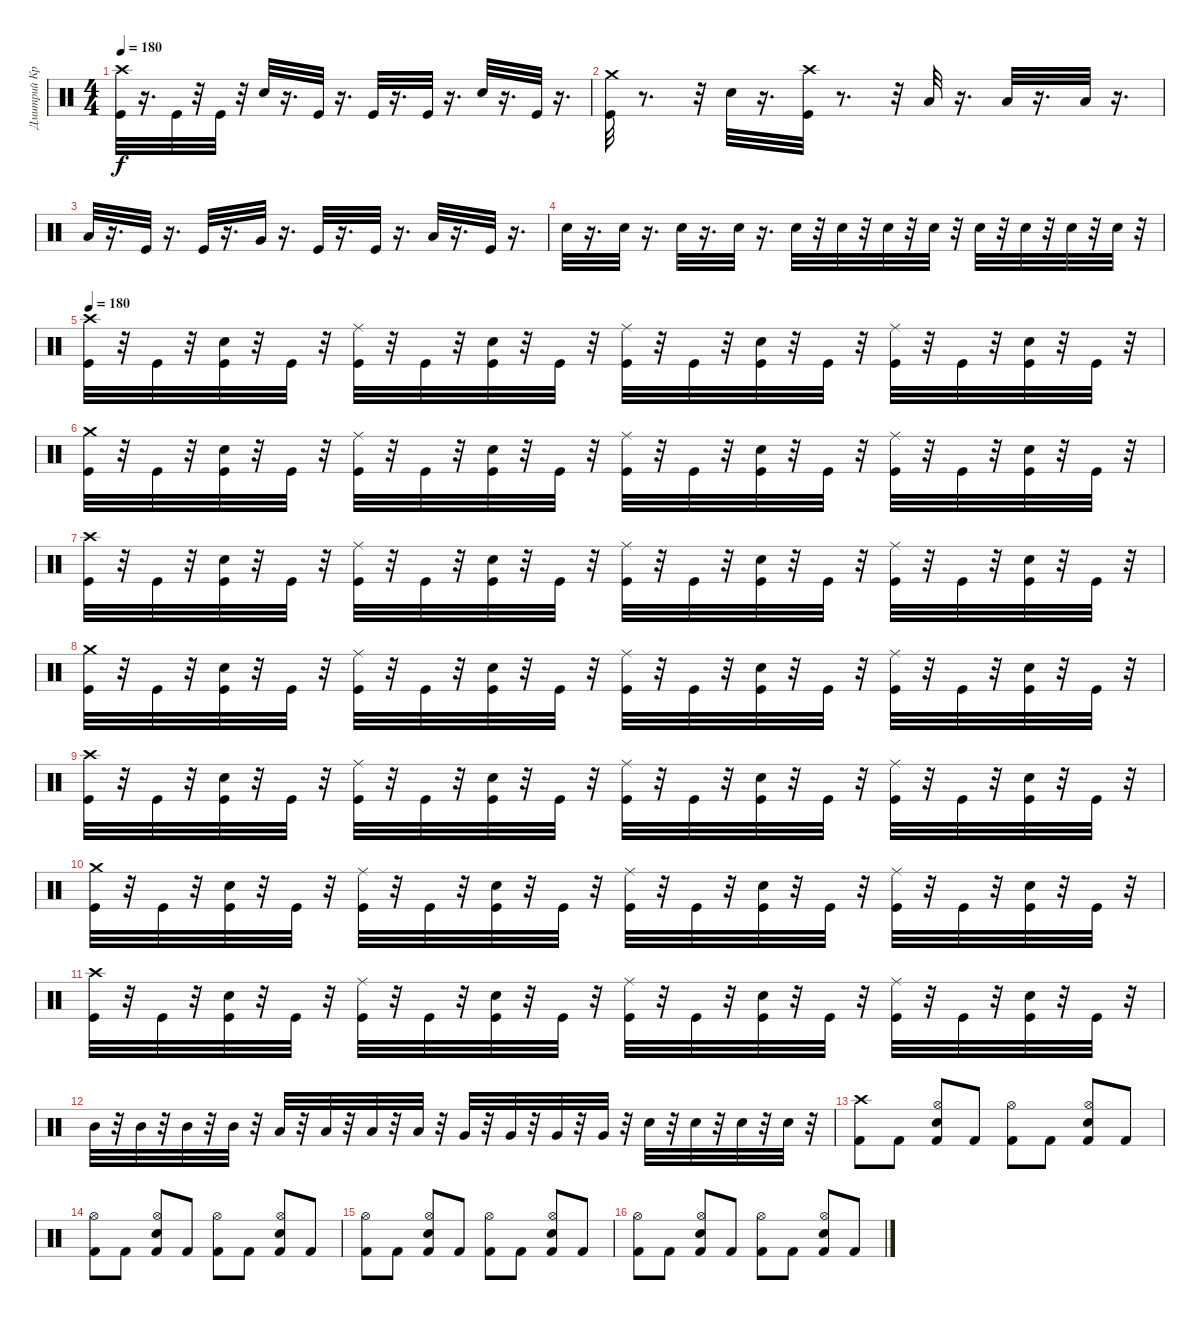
\track ("Дмитрий Кривенков" "Дмитрий Кр") {instrument percussion}
\staff {score}
\articulation defaults
\ts (4 4)
\tempo 180
\clef neutral
\ks c
("Kick (hit)" "Crash high (hit)").32{dy f} r.16{d} "Kick (hit)".32 r.32 "Kick (hit)".32 r.32 "Electric Snare (hit)".32 r.16{d} "Kick (hit)".32 r.16{d} "Kick (hit)".32 r.16{d} "Kick (hit)".32 r.16{d} "Electric Snare (hit)".32 r.16{d} "Kick (hit)".32 r.16{d} |
("Kick (hit)" "Crash medium (hit)").32 r.8{d} r.32 "Electric Snare (hit)".32 r.16{d} ("Kick (hit)" "Crash high (hit)").32 r.8{d} r.32 "Low Floor Tom (hit)".32 r.16{d} "Low Floor Tom (hit)".32 r.16{d} "Low Floor Tom (hit)".32 r.16{d} |
"Low Tom (hit)".32 r.16{d} "Kick (hit)".32 r.16{d} "Kick (hit)".32 r.16{d} "Very Low Tom (hit)".32 r.16{d} "Kick (hit)".32 r.16{d} "Kick (hit)".32 r.16{d} "Low Floor Tom (hit)".32 r.16{d} "Kick (hit)".32 r.16{d} |
"Electric Snare (hit)".32 r.16{d} "Electric Snare (hit)".32 r.16{d} "Electric Snare (hit)".32 r.16{d} "Electric Snare (hit)".32 r.16{d} "Electric Snare (hit)".32 r.32 "Electric Snare (hit)".32 r.32 "Electric Snare (hit)".32 r.32 "Electric Snare (hit)".32 r.32 "Electric Snare (hit)".32 r.32 "Electric Snare (hit)".32 r.32 "Electric Snare (hit)".32 r.32 "Electric Snare (hit)".32 r.32 |
\tempo 180
("Kick (hit)" "Crash high (hit)").32 r.32 "Kick (hit)".32 r.32 ("Electric Snare (hit)" "Kick (hit)").32 r.32 "Kick (hit)".32 r.32 ("Kick (hit)" "Ride (middle)").32 r.32 "Kick (hit)".32 r.32 ("Electric Snare (hit)" "Kick (hit)").32 r.32 "Kick (hit)".32 r.32 ("Kick (hit)" "Ride (middle)").32 r.32 "Kick (hit)".32 r.32 ("Electric Snare (hit)" "Kick (hit)").32 r.32 "Kick (hit)".32 r.32 ("Kick (hit)" "Ride (middle)").32 r.32 "Kick (hit)".32 r.32 ("Electric Snare (hit)" "Kick (hit)").32 r.32 "Kick (hit)".32 r.32 |
("Crash medium (hit)" "Kick (hit)").32 r.32 "Kick (hit)".32 r.32 ("Electric Snare (hit)" "Kick (hit)").32 r.32 "Kick (hit)".32 r.32 ("Ride (middle)" "Kick (hit)").32 r.32 "Kick (hit)".32 r.32 ("Electric Snare (hit)" "Kick (hit)").32 r.32 "Kick (hit)".32 r.32 ("Ride (middle)" "Kick (hit)").32 r.32 "Kick (hit)".32 r.32 ("Electric Snare (hit)" "Kick (hit)").32 r.32 "Kick (hit)".32 r.32 ("Ride (middle)" "Kick (hit)").32 r.32 "Kick (hit)".32 r.32 ("Electric Snare (hit)" "Kick (hit)").32 r.32 "Kick (hit)".32 r.32 |
("Kick (hit)" "Crash high (hit)").32 r.32 "Kick (hit)".32 r.32 ("Electric Snare (hit)" "Kick (hit)").32 r.32 "Kick (hit)".32 r.32 ("Kick (hit)" "Ride (middle)").32 r.32 "Kick (hit)".32 r.32 ("Electric Snare (hit)" "Kick (hit)").32 r.32 "Kick (hit)".32 r.32 ("Kick (hit)" "Ride (middle)").32 r.32 "Kick (hit)".32 r.32 ("Electric Snare (hit)" "Kick (hit)").32 r.32 "Kick (hit)".32 r.32 ("Kick (hit)" "Ride (middle)").32 r.32 "Kick (hit)".32 r.32 ("Electric Snare (hit)" "Kick (hit)").32 r.32 "Kick (hit)".32 r.32 |
("Crash medium (hit)" "Kick (hit)").32 r.32 "Kick (hit)".32 r.32 ("Electric Snare (hit)" "Kick (hit)").32 r.32 "Kick (hit)".32 r.32 ("Ride (middle)" "Kick (hit)").32 r.32 "Kick (hit)".32 r.32 ("Electric Snare (hit)" "Kick (hit)").32 r.32 "Kick (hit)".32 r.32 ("Ride (middle)" "Kick (hit)").32 r.32 "Kick (hit)".32 r.32 ("Electric Snare (hit)" "Kick (hit)").32 r.32 "Kick (hit)".32 r.32 ("Ride (middle)" "Kick (hit)").32 r.32 "Kick (hit)".32 r.32 ("Electric Snare (hit)" "Kick (hit)").32 r.32 "Kick (hit)".32 r.32 |
("Kick (hit)" "Crash high (hit)").32 r.32 "Kick (hit)".32 r.32 ("Kick (hit)" "Electric Snare (hit)").32 r.32 "Kick (hit)".32 r.32 ("Ride (middle)" "Kick (hit)").32 r.32 "Kick (hit)".32 r.32 ("Kick (hit)" "Electric Snare (hit)").32 r.32 "Kick (hit)".32 r.32 ("Ride (middle)" "Kick (hit)").32 r.32 "Kick (hit)".32 r.32 ("Kick (hit)" "Electric Snare (hit)").32 r.32 "Kick (hit)".32 r.32 ("Ride (middle)" "Kick (hit)").32 r.32 "Kick (hit)".32 r.32 ("Kick (hit)" "Electric Snare (hit)").32 r.32 "Kick (hit)".32 r.32 |
("Kick (hit)" "Crash medium (hit)").32 r.32 "Kick (hit)".32 r.32 ("Kick (hit)" "Electric Snare (hit)").32 r.32 "Kick (hit)".32 r.32 ("Kick (hit)" "Ride (middle)").32 r.32 "Kick (hit)".32 r.32 ("Kick (hit)" "Electric Snare (hit)").32 r.32 "Kick (hit)".32 r.32 ("Kick (hit)" "Ride (middle)").32 r.32 "Kick (hit)".32 r.32 ("Kick (hit)" "Electric Snare (hit)").32 r.32 "Kick (hit)".32 r.32 ("Kick (hit)" "Ride (middle)").32 r.32 "Kick (hit)".32 r.32 ("Kick (hit)" "Electric Snare (hit)").32 r.32 "Kick (hit)".32 r.32 |
("Kick (hit)" "Crash high (hit)").32 r.32 "Kick (hit)".32 r.32 ("Kick (hit)" "Electric Snare (hit)").32 r.32 "Kick (hit)".32 r.32 ("Kick (hit)" "Ride (middle)").32 r.32 "Kick (hit)".32 r.32 ("Kick (hit)" "Electric Snare (hit)").32 r.32 "Kick (hit)".32 r.32 ("Kick (hit)" "Ride (middle)").32 r.32 "Kick (hit)".32 r.32 ("Kick (hit)" "Electric Snare (hit)").32 r.32 "Kick (hit)".32 r.32 ("Kick (hit)" "Ride (middle)").32 r.32 "Kick (hit)".32 r.32 ("Kick (hit)" "Electric Snare (hit)").32 r.32 "Kick (hit)".32 r.32 |
"Mid Tom (hit)".32 r.32 "Mid Tom (hit)".32 r.32 "Mid Tom (hit)".32 r.32 "Mid Tom (hit)".32 r.32 "Low Tom (hit)".32 r.32 "Low Tom (hit)".32 r.32 "Low Tom (hit)".32 r.32 "Low Tom (hit)".32 r.32 "Very Low Tom (hit)".32 r.32 "Very Low Tom (hit)".32 r.32 "Very Low Tom (hit)".32 r.32 "Very Low Tom (hit)".32 r.32 "Electric Snare (hit)".32 r.32 "Electric Snare (hit)".32 r.32 "Electric Snare (hit)".32 r.32 "Electric Snare (hit)".32 r.32 |
("Kick (hit) 2" "Crash high (hit)").8 "Kick (hit) 2".8 ("Hi-Hat (open)" "Kick (hit) 2" "Snare (hit) 2").8 "Kick (hit) 2".8 ("Kick (hit) 2" "Hi-Hat (open)").8 "Kick (hit) 2".8 ("Kick (hit) 2" "Hi-Hat (open)" "Snare (hit) 2").8 "Kick (hit) 2".8 |
("Hi-Hat (open)" "Kick (hit) 2").8 "Kick (hit) 2".8 ("Snare (hit) 2" "Kick (hit) 2" "Hi-Hat (open)").8 "Kick (hit) 2".8 ("Kick (hit) 2" "Hi-Hat (open)").8 "Kick (hit) 2".8 ("Kick (hit) 2" "Hi-Hat (open)" "Snare (hit) 2").8 "Kick (hit) 2".8 |
("Kick (hit) 2" "Hi-Hat (open)").8 "Kick (hit) 2".8 ("Kick (hit) 2" "Hi-Hat (open)" "Snare (hit) 2").8 "Kick (hit) 2".8 ("Kick (hit) 2" "Hi-Hat (open)").8 "Kick (hit) 2".8 ("Hi-Hat (open)" "Snare (hit) 2" "Kick (hit) 2").8 "Kick (hit) 2".8 |
("Kick (hit) 2" "Hi-Hat (open)").8 "Kick (hit) 2".8 ("Snare (hit) 2" "Kick (hit) 2" "Hi-Hat (open)").8 "Kick (hit) 2".8 ("Hi-Hat (open)" "Kick (hit) 2").8 "Kick (hit) 2".8 ("Hi-Hat (open)" "Kick (hit) 2" "Snare (hit) 2").8 "Kick (hit) 2".8
